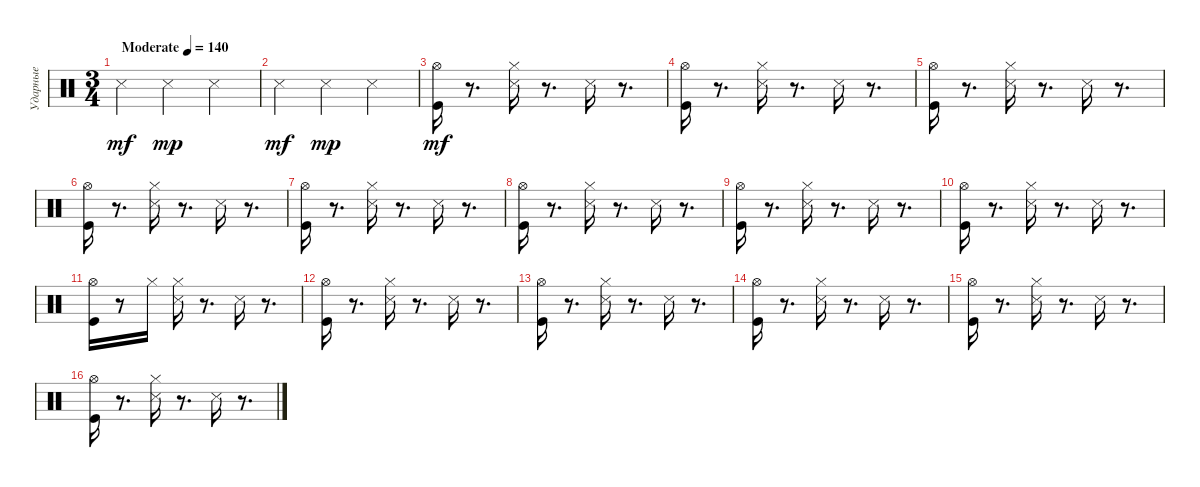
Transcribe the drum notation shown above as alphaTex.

\track ("Ударные" "Ударные") {instrument percussion}
\staff {score}
\articulation defaults
\ts (3 4)
\tempo (140 "Moderate")
\clef neutral
\ks c "Snare (side stick) 3".4{dy mf} "Snare (side stick) 3".4{dy mp} "Snare (side stick) 3".4
|
"Snare (side stick) 3".4{dy mf} "Snare (side stick) 3".4{dy mp} "Snare (side stick) 3".4 |
("Kick (hit)" "Hi-Hat (open)").16{dy mf} r.8{d} ("Hi-Hat (closed)" "Snare (side stick) 3").16 r.8{d} "Snare (side stick) 3".16 r.8{d} |
("Kick (hit)" "Hi-Hat (open)").16 r.8{d} ("Hi-Hat (closed)" "Snare (side stick) 3").16 r.8{d} "Snare (side stick) 3".16 r.8{d} |
("Kick (hit)" "Hi-Hat (open)").16 r.8{d} ("Hi-Hat (closed)" "Snare (side stick) 3").16 r.8{d} "Snare (side stick) 3".16 r.8{d} |
("Kick (hit)" "Hi-Hat (open)").16 r.8{d} ("Hi-Hat (closed)" "Snare (side stick) 3").16 r.8{d} "Snare (side stick) 3".16 r.8{d} |
("Kick (hit)" "Hi-Hat (open)").16 r.8{d} ("Hi-Hat (closed)" "Snare (side stick) 3").16 r.8{d} "Snare (side stick) 3".16 r.8{d} |
("Kick (hit)" "Hi-Hat (open)").16 r.8{d} ("Hi-Hat (closed)" "Snare (side stick) 3").16 r.8{d} "Snare (side stick) 3".16 r.8{d} |
("Kick (hit)" "Hi-Hat (open)").16 r.8{d} ("Hi-Hat (closed)" "Snare (side stick) 3").16 r.8{d} "Snare (side stick) 3".16 r.8{d} |
("Kick (hit)" "Hi-Hat (open)").16 r.8{d} ("Hi-Hat (closed)" "Snare (side stick) 3").16 r.8{d} "Snare (side stick) 3".16 r.8{d} |
("Kick (hit)" "Hi-Hat (open)").16 r.8 "Hi-Hat (closed)".16 ("Hi-Hat (closed)" "Snare (side stick) 3").16 r.8{d} "Snare (side stick) 3".16 r.8{d} |
("Kick (hit)" "Hi-Hat (open)").16 r.8{d} ("Hi-Hat (closed)" "Snare (side stick) 3").16 r.8{d} "Snare (side stick) 3".16 r.8{d} |
("Kick (hit)" "Hi-Hat (open)").16 r.8{d} ("Hi-Hat (closed)" "Snare (side stick) 3").16 r.8{d} "Snare (side stick) 3".16 r.8{d} |
("Kick (hit)" "Hi-Hat (open)").16 r.8{d} ("Hi-Hat (closed)" "Snare (side stick) 3").16 r.8{d} "Snare (side stick) 3".16 r.8{d} |
("Kick (hit)" "Hi-Hat (open)").16 r.8{d} ("Hi-Hat (closed)" "Snare (side stick) 3").16 r.8{d} "Snare (side stick) 3".16 r.8{d} |
("Kick (hit)" "Hi-Hat (open)").16 r.8{d} ("Hi-Hat (closed)" "Snare (side stick) 3").16 r.8{d} "Snare (side stick) 3".16 r.8{d}
